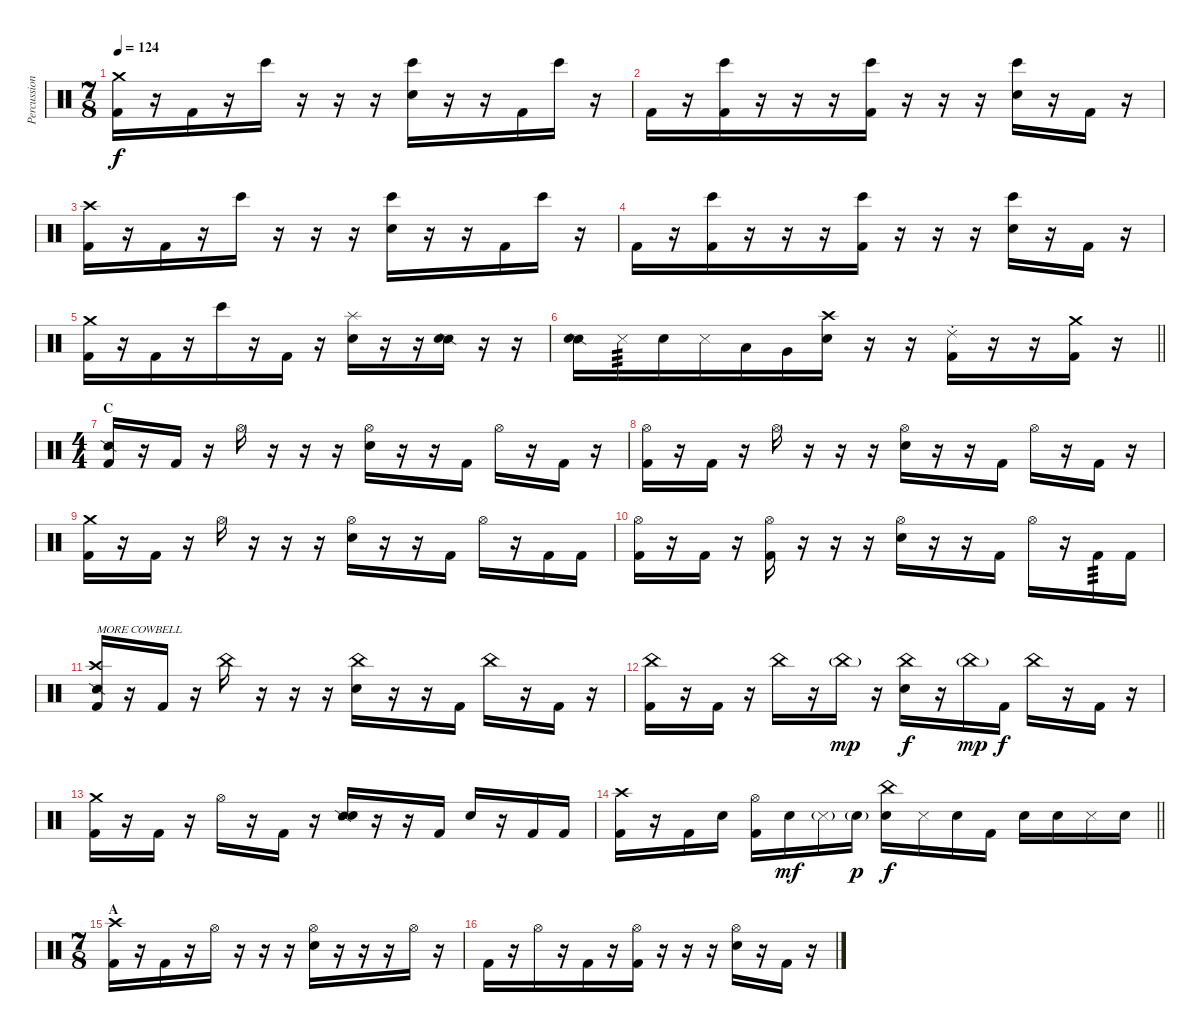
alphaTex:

\track ("Percussion" "Percussion") {instrument percussion}
\staff {score}
\articulation defaults
\ts (7 8)
\tempo 124
\clef neutral
\ks c
("Crash medium (hit)" "Kick (hit) 2").16{dy f} r.16 "Kick (hit) 2".16 r.16 "Bongo High (hit)".16 r.16 r.16 r.16 ("Bongo High (hit)" "Snare (hit) 2").16 r.16 r.16 "Kick (hit) 2".16 "Bongo High (hit)".16 r.16 |
"Kick (hit) 2".16 r.16 ("Bongo High (hit)" "Kick (hit) 2").16 r.16 r.16 r.16 ("Bongo High (hit)" "Kick (hit) 2").16 r.16 r.16 r.16 ("Bongo High (hit)" "Snare (hit) 2").16 r.16 "Kick (hit) 2".16 r.16 |
("Crash high (hit)" "Kick (hit) 2").16 r.16 "Kick (hit) 2".16 r.16 "Bongo High (hit)".16 r.16 r.16 r.16 ("Bongo High (hit)" "Snare (hit) 2").16 r.16 r.16 "Kick (hit) 2".16 "Bongo High (hit)".16 r.16 |
"Kick (hit) 2".16 r.16 ("Bongo High (hit)" "Kick (hit) 2").16 r.16 r.16 r.16 ("Bongo High (hit)" "Kick (hit) 2").16 r.16 r.16 r.16 ("Bongo High (hit)" "Snare (hit) 2").16 r.16 "Kick (hit) 2".16 r.16 |
("Crash medium (hit)" "Kick (hit) 2").16 r.16 "Kick (hit) 2".16 r.16 "Bongo High (hit)".16 r.16 "Kick (hit) 2".16 r.16 ("Splash (hit)" "Snare (hit) 2").16 r.16 r.16 ("Snare (side stick) 2" "Snare (hit) 2").16 r.16 r.16 |
\barLineRight lightlight
("Snare (side stick) 2" "Snare (hit) 2").16 "Metronome (hit)".16{tp 3} "Snare (hit) 2".16 "Metronome (hit)".16 "Low Tom (hit)".16 "Very Low Tom (hit)".16 ("Crash high (hit)" "Snare (hit) 2").16 r.16 r.16 ("Ride (choke) 2" "Kick (hit) 2").16 r.16 r.16 ("Crash medium (hit)" "Kick (hit) 2").16 r.16 |
\ts (4 4)
\section ("" "C")
("Snare (side stick) 2" "Kick (hit) 2").16 r.16 "Kick (hit) 2".16 r.16 "Hi-Hat (open)".16 r.16 r.16 r.16 ("Hi-Hat (open)" "Snare (hit) 2").16 r.16 r.16 "Kick (hit) 2".16 "Hi-Hat (open)".16 r.16 "Kick (hit) 2".16 r.16 |
("Hi-Hat (open)" "Kick (hit) 2").16 r.16 "Kick (hit) 2".16 r.16 "Hi-Hat (open)".16 r.16 r.16 r.16 ("Hi-Hat (open)" "Snare (hit) 2").16 r.16 r.16 "Kick (hit) 2".16 "Hi-Hat (open)".16 r.16 "Kick (hit) 2".16 r.16 |
("Crash medium (hit)" "Kick (hit) 2").16 r.16 "Kick (hit) 2".16 r.16 "Hi-Hat (open)".16 r.16 r.16 r.16 ("Hi-Hat (open)" "Snare (hit) 2").16 r.16 r.16 "Kick (hit) 2".16 "Hi-Hat (open)".16 r.16 "Kick (hit) 2".16 "Kick (hit) 2".16 |
("Hi-Hat (open)" "Kick (hit) 2").16 r.16 "Kick (hit) 2".16 r.16 ("Hi-Hat (open)" "Kick (hit) 2").16 r.16 r.16 r.16 ("Hi-Hat (open)" "Snare (hit) 2").16 r.16 r.16 "Kick (hit) 2".16 "Hi-Hat (open)".16 r.16 "Kick (hit) 2".16{tp 3} "Kick (hit) 2".16 |
("Snare (side stick) 2" "Crash high (hit)" "Kick (hit) 2").16{txt "MORE COWBELL"} r.16 "Kick (hit) 2".16 r.16 "China (hit)".16 r.16 r.16 r.16 ("China (hit)" "Snare (hit) 2").16 r.16 r.16 "Kick (hit) 2".16 "China (hit)".16 r.16 "Kick (hit) 2".16 r.16 |
("China (hit)" "Kick (hit) 2").16 r.16 "Kick (hit) 2".16 r.16 "China (hit)".16 r.16 "China (hit)"{g}.16{dy mp} r.16 ("China (hit)" "Snare (hit) 2").16{dy f} r.16 "China (hit)"{g}.16{dy mp} "Kick (hit) 2".16{dy f} "China (hit)".16 r.16 "Kick (hit) 2".16 r.16 |
("Crash medium (hit)" "Kick (hit) 2").16 r.16 "Kick (hit) 2".16 r.16 "Hi-Hat (open)".16 r.16 "Kick (hit) 2".16 r.16 ("Snare (side stick) 2" "Snare (hit) 2").16 r.16 r.16 "Kick (hit) 2".16 "Snare (hit)".16 r.16 "Kick (hit) 2".16 "Kick (hit) 2".16 |
\barLineRight lightlight
("Crash high (hit)" "Kick (hit) 2").16 r.16 "Kick (hit) 2".16 "Snare (hit) 2".16 ("Hi-Hat (open)" "Kick (hit) 2").16 "Snare (hit) 2".16{dy mf} "Metronome (hit)"{g}.16 "Snare (hit) 2"{g}.16{dy p} ("China (hit)" "Snare (hit) 2").16{dy f} "Metronome (hit)".16 "Snare (hit) 2".16 "Kick (hit) 2".16 "Snare (hit)".16 "Snare (hit) 2".16 "Metronome (hit)".16 "Snare (hit) 2".16 |
\ts (7 8)
\section ("" "A")
("Crash high (hit)" "Kick (hit) 2").16 r.16 "Kick (hit) 2".16 r.16 "Hi-Hat (open)".16 r.16 r.16 r.16 ("Hi-Hat (open)" "Snare (hit) 2").16 r.16 r.16 r.16 "Hi-Hat (open)".16 r.16 |
"Kick (hit) 2".16 r.16 "Hi-Hat (open)".16 r.16 "Kick (hit) 2".16 r.16 ("Hi-Hat (open)" "Kick (hit) 2").16 r.16 r.16 r.16 ("Hi-Hat (open)" "Snare (hit) 2").16 r.16 "Kick (hit) 2".16 r.16
